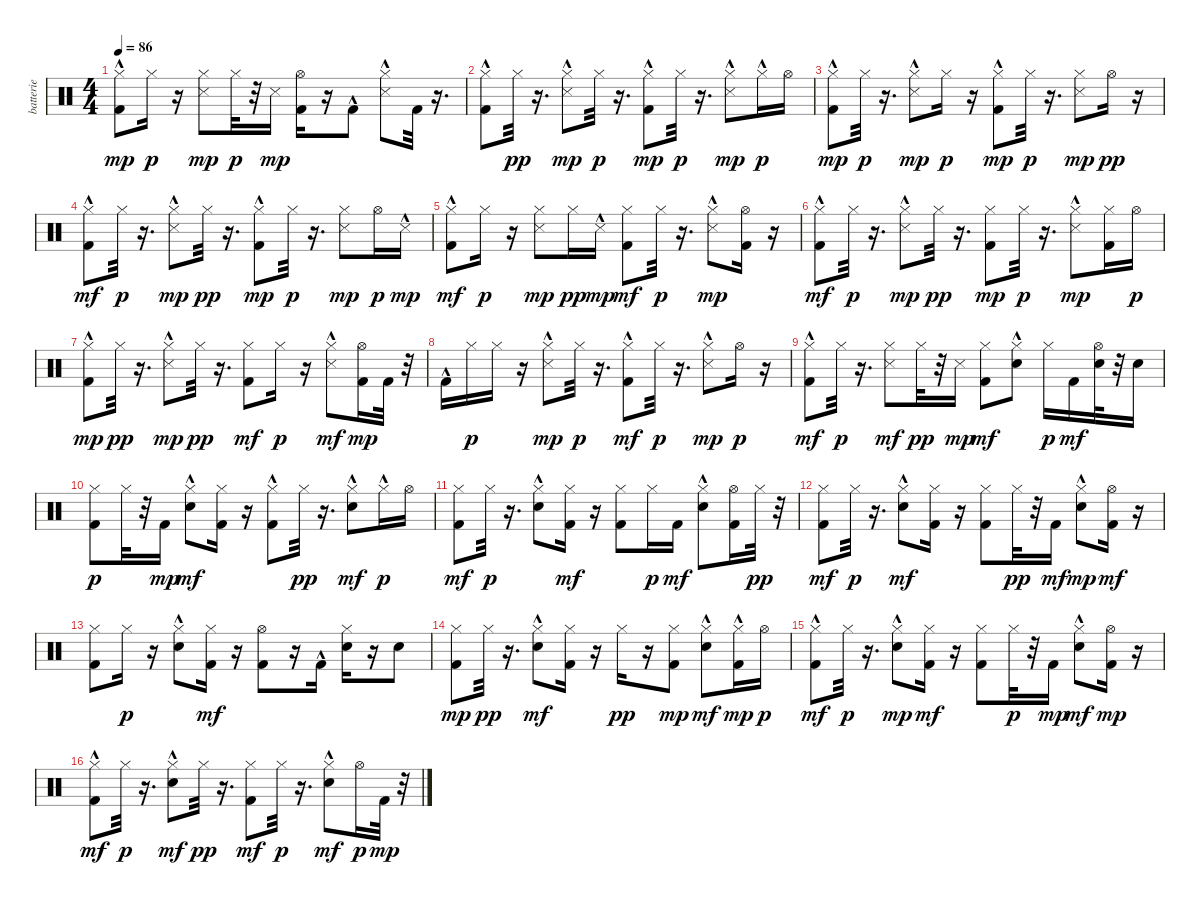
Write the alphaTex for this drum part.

\track ("batterie" "batterie") {instrument percussion}
\staff {score}
\articulation defaults
\ts (4 4)
\tempo 86
\clef neutral
\ks c
("Hi-Hat (closed)" "Kick (hit) 2"{hac}).8{dy mp} "Hi-Hat (closed)".16{dy p} r.16 ("Hi-Hat (closed)" "Snare (side stick) 3").8{dy mp} "Hi-Hat (closed)".32{dy p} r.32 "Snare (side stick) 3".16{dy mp} ("Hi-Hat (open)" "Kick (hit) 2").16 r.16 "Kick (hit) 2"{hac}.8 ("Hi-Hat (closed)" "Snare (side stick) 3"{hac}).8 "Kick (hit) 2".32 r.16{d} |
("Hi-Hat (closed)" "Kick (hit) 2"{hac}).8 "Hi-Hat (closed)".32{dy pp} r.16{d} ("Hi-Hat (closed)" "Snare (side stick) 3"{hac}).8{dy mp} "Hi-Hat (closed)".32{dy p} r.16{d} ("Hi-Hat (closed)" "Kick (hit) 2"{hac}).8{dy mp} "Hi-Hat (closed)".32{dy p} r.16{d} ("Hi-Hat (closed)" "Snare (side stick) 3"{hac}).8{dy mp} "Hi-Hat (closed)"{hac}.16{dy p} "Hi-Hat (open)".16 |
("Hi-Hat (closed)"{hac} "Kick (hit) 2"{hac}).8{dy mp} "Hi-Hat (closed)".32{dy p} r.16{d} ("Hi-Hat (closed)" "Snare (side stick) 3"{hac}).8{dy mp} "Hi-Hat (closed)".16{dy p} r.16 ("Hi-Hat (closed)" "Kick (hit) 2"{hac}).8{dy mp} "Hi-Hat (closed)".32{dy p} r.16{d} ("Hi-Hat (closed)" "Snare (side stick) 3").8{dy mp} "Hi-Hat (open)".16{dy pp} r.16 |
("Hi-Hat (closed)" "Kick (hit) 2"{hac}).8{dy mf} "Hi-Hat (closed)".32{dy p} r.16{d} ("Hi-Hat (closed)" "Snare (side stick) 3"{hac}).8{dy mp} "Hi-Hat (closed)".32{dy pp} r.16{d} ("Hi-Hat (closed)" "Kick (hit) 2"{hac}).8{dy mp} "Hi-Hat (closed)".32{dy p} r.16{d} ("Hi-Hat (closed)" "Snare (side stick) 3").8{dy mp} "Hi-Hat (open)".16{dy p} "Snare (side stick) 3"{hac}.16{dy mp} |
("Hi-Hat (closed)" "Kick (hit) 2"{hac}).8{dy mf} "Hi-Hat (closed)".16{dy p} r.16 ("Hi-Hat (closed)" "Snare (side stick) 3").8{dy mp} "Hi-Hat (closed)".16{dy pp} "Snare (side stick) 3"{hac}.16{dy mp} ("Hi-Hat (closed)" "Kick (hit) 2").8{dy mf} "Hi-Hat (closed)".32{dy p} r.16{d} ("Hi-Hat (closed)" "Snare (side stick) 3"{hac}).8{dy mp} ("Hi-Hat (open)" "Kick (hit) 2").16 r.16 |
("Hi-Hat (closed)" "Kick (hit) 2"{hac}).8{dy mf} "Hi-Hat (closed)".32{dy p} r.16{d} ("Hi-Hat (closed)" "Snare (side stick) 3"{hac}).8{dy mp} "Hi-Hat (closed)".32{dy pp} r.16{d} ("Hi-Hat (closed)" "Kick (hit) 2").8{dy mp} "Hi-Hat (closed)".32{dy p} r.16{d} ("Hi-Hat (closed)" "Snare (side stick) 3"{hac}).8{dy mp} ("Hi-Hat (closed)" "Kick (hit) 2").16 "Hi-Hat (open)".16{dy p} |
("Hi-Hat (closed)" "Kick (hit) 2"{hac}).8{dy mp} "Hi-Hat (closed)".32{dy pp} r.16{d} ("Hi-Hat (closed)" "Snare (side stick) 3"{hac}).8{dy mp} "Hi-Hat (closed)".32{dy pp} r.16{d} ("Hi-Hat (closed)" "Kick (hit) 2").8{dy mf} "Hi-Hat (closed)".16{dy p} r.16 ("Hi-Hat (closed)" "Snare (side stick) 3"{hac}).8{dy mf} ("Hi-Hat (open)" "Kick (hit) 2").16{dy mp} "Kick (hit) 2".32 r.32 |
"Kick (hit) 2"{hac}.16 "Hi-Hat (closed)".16{dy p} "Hi-Hat (closed)".16 r.16 ("Hi-Hat (closed)" "Snare (side stick) 3"{hac}).8{dy mp} "Hi-Hat (closed)".32{dy p} r.16{d} ("Hi-Hat (closed)" "Kick (hit) 2"{hac}).8{dy mf} "Hi-Hat (closed)".32{dy p} r.16{d} ("Hi-Hat (closed)" "Snare (side stick) 3"{hac}).8{dy mp} "Hi-Hat (open)".16{dy p} r.16 |
("Hi-Hat (closed)" "Kick (hit) 2"{hac}).8{dy mf} "Hi-Hat (closed)".32{dy p} r.16{d} ("Hi-Hat (closed)" "Snare (side stick) 3").8{dy mf} "Hi-Hat (closed)".32{dy pp} r.32 "Snare (side stick) 3".16{dy mp} ("Hi-Hat (closed)" "Kick (hit) 2").8{dy mf} ("Hi-Hat (closed)" "Snare (hit) 2"{hac}).8 "Hi-Hat (closed)".16{dy p} "Kick (hit) 2".16{dy mf} ("Hi-Hat (open)" "Snare (hit) 2").32 r.32 "Snare (hit) 2".16 |
("Hi-Hat (closed)" "Kick (hit) 2").8{dy p} "Hi-Hat (closed)".32 r.32 "Kick (hit) 2".16{dy mp} ("Hi-Hat (closed)" "Snare (hit) 2"{hac}).8{dy mf} ("Hi-Hat (closed)" "Kick (hit) 2").16 r.16 ("Hi-Hat (closed)" "Kick (hit) 2"{hac}).8 "Hi-Hat (closed)".32{dy pp} r.16{d} ("Hi-Hat (closed)" "Snare (hit) 2"{hac}).8{dy mf} "Hi-Hat (closed)"{hac}.16{dy p} "Hi-Hat (open)".16 |
("Hi-Hat (closed)" "Kick (hit) 2").8{dy mf} "Hi-Hat (closed)".32{dy p} r.16{d} ("Hi-Hat (closed)" "Snare (hit) 2"{hac}).8 ("Hi-Hat (closed)" "Kick (hit) 2").16{dy mf} r.16 ("Hi-Hat (closed)" "Kick (hit) 2").8 "Hi-Hat (closed)".16{dy p} "Kick (hit) 2".16{dy mf} ("Hi-Hat (closed)" "Snare (hit) 2"{hac}).8 ("Hi-Hat (open)" "Kick (hit) 2").16 "Hi-Hat (closed)".32{dy pp} r.32 |
("Hi-Hat (closed)" "Kick (hit) 2").8{dy mf} "Hi-Hat (closed)".32{dy p} r.16{d} ("Hi-Hat (closed)" "Snare (hit) 2"{hac}).8{dy mf} ("Hi-Hat (closed)" "Kick (hit) 2").16 r.16 ("Hi-Hat (closed)" "Kick (hit) 2").8 "Hi-Hat (closed)".32{dy pp} r.32 "Kick (hit) 2".16{dy mf} ("Hi-Hat (closed)" "Snare (hit) 2"{hac}).8{dy mp} ("Hi-Hat (open)" "Kick (hit) 2").16{dy mf} r.16 |
("Hi-Hat (closed)" "Kick (hit) 2").8 "Hi-Hat (closed)".16{dy p} r.16 ("Hi-Hat (closed)" "Snare (hit) 2"{hac}).8 ("Hi-Hat (closed)" "Kick (hit) 2").16{dy mf} r.16 ("Hi-Hat (open)" "Kick (hit) 2").8 r.16 "Kick (hit) 2"{hac}.16 ("Hi-Hat (closed)" "Snare (hit) 2").16 r.16 "Snare (hit) 2".8 |
("Hi-Hat (closed)" "Kick (hit) 2").8{dy mp} "Hi-Hat (closed)".32{dy pp} r.16{d} ("Hi-Hat (closed)" "Snare (hit) 2"{hac}).8{dy mf} ("Hi-Hat (closed)" "Kick (hit) 2").16 r.16 "Hi-Hat (closed)".16{dy pp} r.16 ("Hi-Hat (closed)" "Kick (hit) 2").8{dy mp} ("Hi-Hat (closed)" "Snare (hit) 2"{hac}).8{dy mf} ("Hi-Hat (closed)"{hac} "Kick (hit) 2").16{dy mp} "Hi-Hat (open)".16{dy p} |
("Hi-Hat (closed)"{hac} "Kick (hit) 2").8{dy mf} "Hi-Hat (closed)".32{dy p} r.16{d} ("Hi-Hat (closed)" "Snare (hit) 2"{hac}).8{dy mp} ("Hi-Hat (closed)" "Kick (hit) 2").16{dy mf} r.16 ("Hi-Hat (closed)" "Kick (hit) 2").8 "Hi-Hat (closed)".32{dy p} r.32 "Kick (hit) 2".16{dy mp} ("Hi-Hat (closed)" "Snare (hit) 2"{hac}).8{dy mf} ("Hi-Hat (open)" "Kick (hit) 2").16{dy mp} r.16 |
("Hi-Hat (closed)" "Kick (hit) 2"{hac}).8{dy mf} "Hi-Hat (closed)".32{dy p} r.16{d} ("Hi-Hat (closed)" "Snare (hit) 2"{hac}).8{dy mf} "Hi-Hat (closed)".32{dy pp} r.16{d} ("Hi-Hat (closed)" "Kick (hit) 2").8{dy mf} "Hi-Hat (closed)".32{dy p} r.16{d} ("Hi-Hat (closed)" "Snare (hit) 2"{hac}).8{dy mf} "Hi-Hat (open)".16{dy p} "Kick (hit) 2".32{dy mp} r.32
